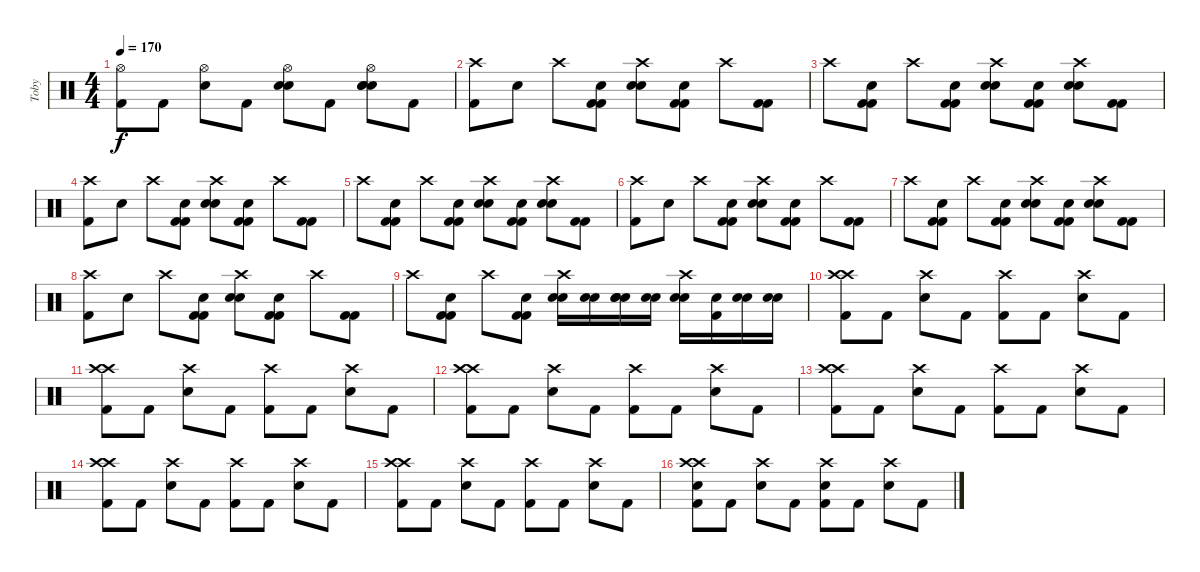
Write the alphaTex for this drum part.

\track ("Toby" "Toby") {instrument percussion}
\staff {score}
\articulation defaults
\ts (4 4)
\tempo 170
\clef neutral
\ks c
("Hi-Hat (open)" "Kick (hit) 2").8{dy f} "Kick (hit) 2".8 ("Hi-Hat (open)" "Electric Snare (hit)").8 "Kick (hit) 2".8 ("Hi-Hat (open)" "Electric Snare (hit)" "Electric Snare (hit)").8 "Kick (hit) 2".8 ("Hi-Hat (open)" "Electric Snare (hit)" "Electric Snare (hit)" "Electric Snare (hit)").8 "Kick (hit) 2".8 |
("Crash high (hit)" "Kick (hit) 2").8 "Snare (hit)".8 "Crash high (hit)".8 ("Snare (hit)" "Kick (hit) 2" "Kick (hit) 2").8 ("Crash high (hit)" "Electric Snare (hit)" "Electric Snare (hit)").8 ("Snare (hit)" "Kick (hit) 2" "Kick (hit) 2").8 "Crash high (hit)".8 ("Kick (hit) 2" "Kick (hit) 2").8 |
"Crash high (hit)".8 ("Snare (hit)" "Kick (hit) 2" "Kick (hit) 2").8 "Crash high (hit)".8 ("Snare (hit)" "Kick (hit) 2" "Kick (hit) 2").8 ("Crash high (hit)" "Electric Snare (hit)" "Electric Snare (hit)").8 ("Snare (hit)" "Kick (hit) 2" "Kick (hit) 2").8 ("Crash high (hit)" "Electric Snare (hit)" "Electric Snare (hit)").8 ("Kick (hit) 2" "Kick (hit) 2").8 |
("Crash high (hit)" "Kick (hit) 2").8 "Snare (hit)".8 "Crash high (hit)".8 ("Snare (hit)" "Kick (hit) 2" "Kick (hit) 2").8 ("Crash high (hit)" "Electric Snare (hit)" "Electric Snare (hit)").8 ("Snare (hit)" "Kick (hit) 2" "Kick (hit) 2").8 "Crash high (hit)".8 ("Kick (hit) 2" "Kick (hit) 2").8 |
"Crash high (hit)".8 ("Snare (hit)" "Kick (hit) 2" "Kick (hit) 2").8 "Crash high (hit)".8 ("Snare (hit)" "Kick (hit) 2" "Kick (hit) 2").8 ("Crash high (hit)" "Electric Snare (hit)" "Electric Snare (hit)").8 ("Snare (hit)" "Kick (hit) 2" "Kick (hit) 2").8 ("Crash high (hit)" "Electric Snare (hit)" "Electric Snare (hit)").8 ("Kick (hit) 2" "Kick (hit) 2").8 |
("Crash high (hit)" "Kick (hit) 2").8 "Snare (hit)".8 "Crash high (hit)".8 ("Snare (hit)" "Kick (hit) 2" "Kick (hit) 2").8 ("Crash high (hit)" "Electric Snare (hit)" "Electric Snare (hit)").8 ("Snare (hit)" "Kick (hit) 2" "Kick (hit) 2").8 "Crash high (hit)".8 ("Kick (hit) 2" "Kick (hit) 2").8 |
"Crash high (hit)".8 ("Snare (hit)" "Kick (hit) 2" "Kick (hit) 2").8 "Crash high (hit)".8 ("Snare (hit)" "Kick (hit) 2" "Kick (hit) 2").8 ("Crash high (hit)" "Electric Snare (hit)" "Electric Snare (hit)").8 ("Snare (hit)" "Kick (hit) 2" "Kick (hit) 2").8 ("Crash high (hit)" "Electric Snare (hit)" "Electric Snare (hit)").8 ("Kick (hit) 2" "Kick (hit) 2").8 |
("Crash high (hit)" "Kick (hit) 2").8 "Snare (hit)".8 "Crash high (hit)".8 ("Snare (hit)" "Kick (hit) 2" "Kick (hit) 2").8 ("Crash high (hit)" "Electric Snare (hit)" "Electric Snare (hit)").8 ("Snare (hit)" "Kick (hit) 2" "Kick (hit) 2").8 "Crash high (hit)".8 ("Kick (hit) 2" "Kick (hit) 2").8 |
"Crash high (hit)".8 ("Snare (hit)" "Kick (hit) 2" "Kick (hit) 2").8 "Crash high (hit)".8 ("Snare (hit)" "Kick (hit) 2" "Kick (hit) 2").8 ("Crash high (hit)" "Electric Snare (hit)" "Electric Snare (hit)").16 ("Electric Snare (hit)" "Electric Snare (hit)").16 ("Snare (hit)" "Electric Snare (hit)" "Electric Snare (hit)").16 ("Electric Snare (hit)" "Electric Snare (hit)").16 ("Crash high (hit)" "Electric Snare (hit)" "Electric Snare (hit)").16 ("Electric Snare (hit)" "Kick (hit) 2").16 ("Electric Snare (hit)" "Electric Snare (hit)").16 ("Electric Snare (hit)" "Electric Snare (hit)").16 |
("Crash high (hit)" "Crash high (hit)" "Kick (hit) 2").8 "Kick (hit) 2".8 ("Crash high (hit)" "Electric Snare (hit)").8 "Kick (hit) 2".8 ("Crash high (hit)" "Kick (hit) 2").8 "Kick (hit) 2".8 ("Crash high (hit)" "Electric Snare (hit)").8 "Kick (hit) 2".8 |
("Crash high (hit)" "Crash high (hit)" "Kick (hit) 2").8 "Kick (hit) 2".8 ("Crash high (hit)" "Electric Snare (hit)").8 "Kick (hit) 2".8 ("Crash high (hit)" "Kick (hit) 2").8 "Kick (hit) 2".8 ("Crash high (hit)" "Electric Snare (hit)").8 "Kick (hit) 2".8 |
("Crash high (hit)" "Crash high (hit)" "Kick (hit) 2").8 "Kick (hit) 2".8 ("Crash high (hit)" "Electric Snare (hit)").8 "Kick (hit) 2".8 ("Crash high (hit)" "Kick (hit) 2").8 "Kick (hit) 2".8 ("Crash high (hit)" "Electric Snare (hit)").8 "Kick (hit) 2".8 |
("Crash high (hit)" "Crash high (hit)" "Kick (hit) 2").8 "Kick (hit) 2".8 ("Crash high (hit)" "Electric Snare (hit)").8 "Kick (hit) 2".8 ("Crash high (hit)" "Kick (hit) 2").8 "Kick (hit) 2".8 ("Crash high (hit)" "Electric Snare (hit)").8 "Kick (hit) 2".8 |
("Crash high (hit)" "Crash high (hit)" "Kick (hit) 2").8 "Kick (hit) 2".8 ("Crash high (hit)" "Electric Snare (hit)").8 "Kick (hit) 2".8 ("Crash high (hit)" "Kick (hit) 2").8 "Kick (hit) 2".8 ("Crash high (hit)" "Electric Snare (hit)").8 "Kick (hit) 2".8 |
("Crash high (hit)" "Crash high (hit)" "Kick (hit) 2").8 "Kick (hit) 2".8 ("Crash high (hit)" "Electric Snare (hit)").8 "Kick (hit) 2".8 ("Crash high (hit)" "Kick (hit) 2").8 "Kick (hit) 2".8 ("Crash high (hit)" "Electric Snare (hit)").8 "Kick (hit) 2".8 |
("Crash high (hit)" "Crash high (hit)" "Electric Snare (hit)" "Kick (hit) 2").8 "Kick (hit) 2".8 ("Crash high (hit)" "Electric Snare (hit)").8 "Kick (hit) 2".8 ("Crash high (hit)" "Electric Snare (hit)" "Kick (hit) 2").8 "Kick (hit) 2".8 ("Crash high (hit)" "Electric Snare (hit)").8 "Kick (hit) 2".8
